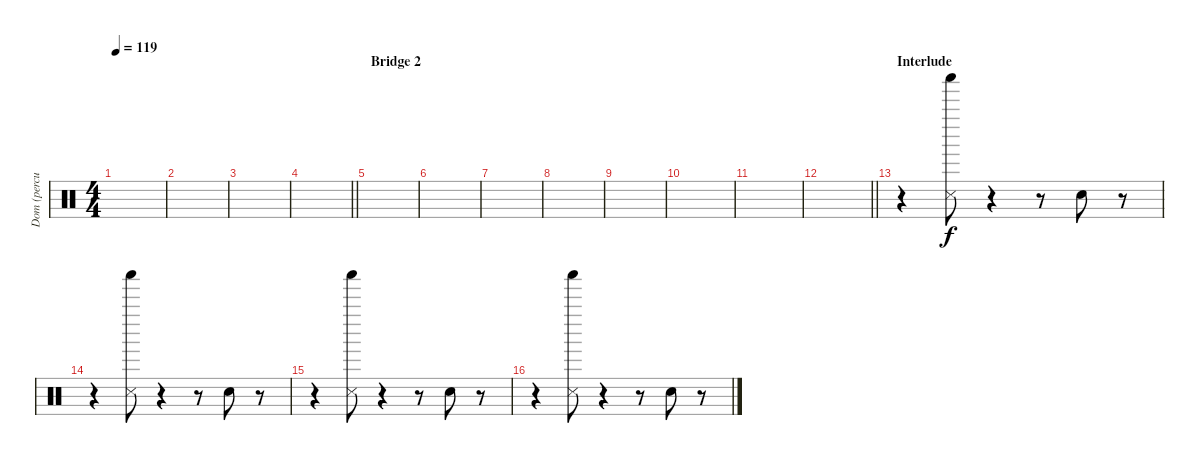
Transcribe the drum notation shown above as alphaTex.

\track ("Dom (percussions)" "Dom (percu") {instrument percussion}
\staff {score}
\articulation defaults
\ts (4 4)
\tempo 119
\clef neutral
\ks c
|
|
|
\barLineRight lightlight
|
\section ("" "Bridge 2")
|
|
|
|
|
|
|
\barLineRight lightlight
|
\section ("" "Interlude")
r.4 ("Shaker (hit)" "Metronome (hit)").8 r.4 r.8 "Hand Clap (hit)".8 r.8 |
r.4 ("Shaker (hit)" "Metronome (hit)").8 r.4 r.8 "Hand Clap (hit)".8 r.8 |
r.4 ("Shaker (hit)" "Metronome (hit)").8 r.4 r.8 "Hand Clap (hit)".8 r.8 |
r.4 ("Shaker (hit)" "Metronome (hit)").8 r.4 r.8 "Hand Clap (hit)".8 r.8
